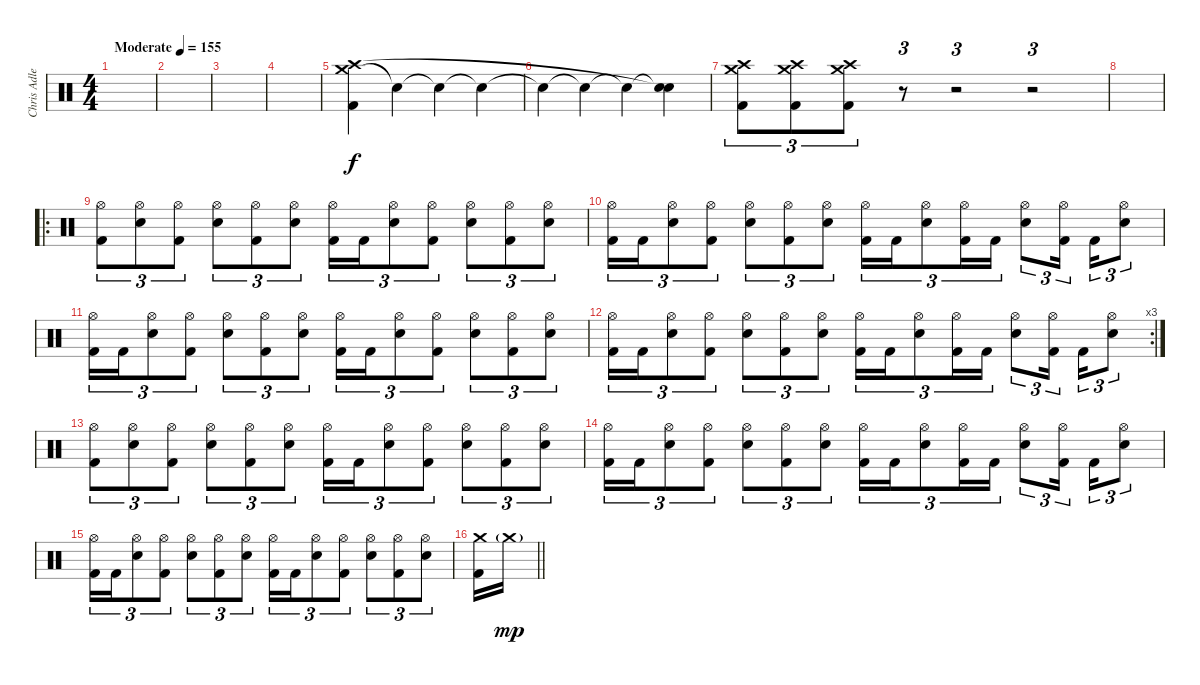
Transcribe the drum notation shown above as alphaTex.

\track ("Chris Adler" "Chris Adle") {instrument percussion}
\staff {score}
\articulation defaults
\ts (4 4)
\tempo (155 "Moderate")
\clef neutral
\ks c
|
|
|
|
("Crash medium (hit)" "Crash high (hit)" "Kick (hit) 2").4 "Snare (hit)"{t}.4 "Snare (hit)"{t}.4 "Snare (hit)"{t}.4 |
"Snare (hit)"{t}.4 "Snare (hit)"{t}.4 "Snare (hit)"{t}.4 ("Snare (hit)"{t} "Snare (hit)"{t}).4 |
("Crash medium (hit)" "Crash high (hit)" "Kick (hit) 2").8{tu (3 2)} ("Crash medium (hit)" "Crash high (hit)" "Kick (hit) 2").8{tu (3 2)} ("Crash medium (hit)" "Crash high (hit)" "Kick (hit) 2").8{tu (3 2)} r.8{tu (3 2)} r.2{tu (3 2)} r.2{tu (3 2)} |
|
\ro
("Hi-Hat (open)" "Kick (hit) 2").8{tu (3 2)} ("Hi-Hat (open)" "Snare (hit) 2").8{tu (3 2)} ("Hi-Hat (open)" "Kick (hit) 2").8{tu (3 2)} ("Hi-Hat (open)" "Snare (hit) 2").8{tu (3 2)} ("Hi-Hat (open)" "Kick (hit) 2").8{tu (3 2)} ("Hi-Hat (open)" "Snare (hit) 2").8{tu (3 2)} ("Hi-Hat (open)" "Kick (hit) 2").16{tu (3 2)} "Kick (hit) 2".16{tu (3 2)} ("Hi-Hat (open)" "Snare (hit) 2").8{tu (3 2)} ("Hi-Hat (open)" "Kick (hit) 2").8{tu (3 2)} ("Hi-Hat (open)" "Snare (hit) 2").8{tu (3 2)} ("Hi-Hat (open)" "Kick (hit) 2").8{tu (3 2)} ("Hi-Hat (open)" "Snare (hit) 2").8{tu (3 2)} |
("Hi-Hat (open)" "Kick (hit) 2").16{tu (3 2)} "Kick (hit) 2".16{tu (3 2)} ("Hi-Hat (open)" "Snare (hit) 2").8{tu (3 2)} ("Hi-Hat (open)" "Kick (hit) 2").8{tu (3 2)} ("Hi-Hat (open)" "Snare (hit) 2").8{tu (3 2)} ("Hi-Hat (open)" "Kick (hit) 2").8{tu (3 2)} ("Hi-Hat (open)" "Snare (hit) 2").8{tu (3 2)} ("Hi-Hat (open)" "Kick (hit) 2").16{tu (3 2)} "Kick (hit) 2".16{tu (3 2)} ("Hi-Hat (open)" "Snare (hit) 2").8{tu (3 2)} ("Hi-Hat (open)" "Kick (hit) 2").16{tu (3 2)} "Kick (hit) 2".16{tu (3 2)} ("Hi-Hat (open)" "Snare (hit) 2").8{tu (3 2)} ("Hi-Hat (open)" "Kick (hit) 2").16{tu (3 2) beam splitsecondary} "Kick (hit) 2".16{tu (3 2)} ("Hi-Hat (open)" "Snare (hit) 2").8{tu (3 2)} |
("Hi-Hat (open)" "Kick (hit) 2").16{tu (3 2)} "Kick (hit) 2".16{tu (3 2)} ("Hi-Hat (open)" "Snare (hit) 2").8{tu (3 2)} ("Hi-Hat (open)" "Kick (hit) 2").8{tu (3 2)} ("Hi-Hat (open)" "Snare (hit) 2").8{tu (3 2)} ("Hi-Hat (open)" "Kick (hit) 2").8{tu (3 2)} ("Hi-Hat (open)" "Snare (hit) 2").8{tu (3 2)} ("Hi-Hat (open)" "Kick (hit) 2").16{tu (3 2)} "Kick (hit) 2".16{tu (3 2)} ("Hi-Hat (open)" "Snare (hit) 2").8{tu (3 2)} ("Hi-Hat (open)" "Kick (hit) 2").8{tu (3 2)} ("Hi-Hat (open)" "Snare (hit) 2").8{tu (3 2)} ("Hi-Hat (open)" "Kick (hit) 2").8{tu (3 2)} ("Hi-Hat (open)" "Snare (hit) 2").8{tu (3 2)} |
\rc 3
("Hi-Hat (open)" "Kick (hit) 2").16{tu (3 2)} "Kick (hit) 2".16{tu (3 2)} ("Hi-Hat (open)" "Snare (hit) 2").8{tu (3 2)} ("Hi-Hat (open)" "Kick (hit) 2").8{tu (3 2)} ("Hi-Hat (open)" "Snare (hit) 2").8{tu (3 2)} ("Hi-Hat (open)" "Kick (hit) 2").8{tu (3 2)} ("Hi-Hat (open)" "Snare (hit) 2").8{tu (3 2)} ("Hi-Hat (open)" "Kick (hit) 2").16{tu (3 2)} "Kick (hit) 2".16{tu (3 2)} ("Hi-Hat (open)" "Snare (hit) 2").8{tu (3 2)} ("Hi-Hat (open)" "Kick (hit) 2").16{tu (3 2)} "Kick (hit) 2".16{tu (3 2)} ("Hi-Hat (open)" "Snare (hit) 2").8{tu (3 2)} ("Hi-Hat (open)" "Kick (hit) 2").16{tu (3 2) beam splitsecondary} "Kick (hit) 2".16{tu (3 2)} ("Hi-Hat (open)" "Snare (hit) 2").8{tu (3 2)} |
("Hi-Hat (open)" "Kick (hit) 2").8{tu (3 2)} ("Hi-Hat (open)" "Snare (hit) 2").8{tu (3 2)} ("Hi-Hat (open)" "Kick (hit) 2").8{tu (3 2)} ("Hi-Hat (open)" "Snare (hit) 2").8{tu (3 2)} ("Hi-Hat (open)" "Kick (hit) 2").8{tu (3 2)} ("Hi-Hat (open)" "Snare (hit) 2").8{tu (3 2)} ("Hi-Hat (open)" "Kick (hit) 2").16{tu (3 2)} "Kick (hit) 2".16{tu (3 2)} ("Hi-Hat (open)" "Snare (hit) 2").8{tu (3 2)} ("Hi-Hat (open)" "Kick (hit) 2").8{tu (3 2)} ("Hi-Hat (open)" "Snare (hit) 2").8{tu (3 2)} ("Hi-Hat (open)" "Kick (hit) 2").8{tu (3 2)} ("Hi-Hat (open)" "Snare (hit) 2").8{tu (3 2)} |
("Hi-Hat (open)" "Kick (hit) 2").16{tu (3 2)} "Kick (hit) 2".16{tu (3 2)} ("Hi-Hat (open)" "Snare (hit) 2").8{tu (3 2)} ("Hi-Hat (open)" "Kick (hit) 2").8{tu (3 2)} ("Hi-Hat (open)" "Snare (hit) 2").8{tu (3 2)} ("Hi-Hat (open)" "Kick (hit) 2").8{tu (3 2)} ("Hi-Hat (open)" "Snare (hit) 2").8{tu (3 2)} ("Hi-Hat (open)" "Kick (hit) 2").16{tu (3 2)} "Kick (hit) 2".16{tu (3 2)} ("Hi-Hat (open)" "Snare (hit) 2").8{tu (3 2)} ("Hi-Hat (open)" "Kick (hit) 2").16{tu (3 2)} "Kick (hit) 2".16{tu (3 2)} ("Hi-Hat (open)" "Snare (hit) 2").8{tu (3 2)} ("Hi-Hat (open)" "Kick (hit) 2").16{tu (3 2) beam splitsecondary} "Kick (hit) 2".16{tu (3 2)} ("Hi-Hat (open)" "Snare (hit) 2").8{tu (3 2)} |
("Hi-Hat (open)" "Kick (hit) 2").16{tu (3 2)} "Kick (hit) 2".16{tu (3 2)} ("Hi-Hat (open)" "Snare (hit) 2").8{tu (3 2)} ("Hi-Hat (open)" "Kick (hit) 2").8{tu (3 2)} ("Hi-Hat (open)" "Snare (hit) 2").8{tu (3 2)} ("Hi-Hat (open)" "Kick (hit) 2").8{tu (3 2)} ("Hi-Hat (open)" "Snare (hit) 2").8{tu (3 2)} ("Hi-Hat (open)" "Kick (hit) 2").16{tu (3 2)} "Kick (hit) 2".16{tu (3 2)} ("Hi-Hat (open)" "Snare (hit) 2").8{tu (3 2)} ("Hi-Hat (open)" "Kick (hit) 2").8{tu (3 2)} ("Hi-Hat (open)" "Snare (hit) 2").8{tu (3 2)} ("Hi-Hat (open)" "Kick (hit) 2").8{tu (3 2)} ("Hi-Hat (open)" "Snare (hit) 2").8{tu (3 2)} |
\barLineRight lightlight
("Crash medium (hit)" "Kick (hit) 2").16 "Crash medium (hit)"{g}.16{dy mp}
